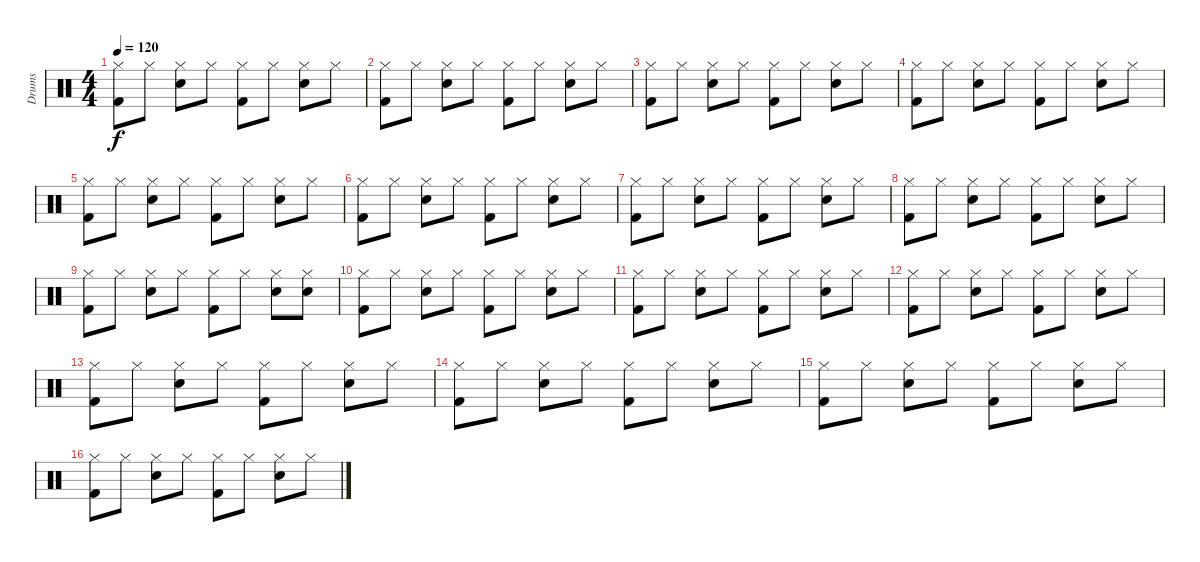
\track ("Drums" "Drums") {instrument percussion}
\staff {score}
\articulation defaults
\ts (4 4)
\tempo 120
\clef neutral
\ks c
("Hi-Hat (closed)" "Kick (hit) 2").8{dy f} "Hi-Hat (closed)".8 ("Hi-Hat (closed)" "Snare (hit) 2").8 "Hi-Hat (closed)".8 ("Hi-Hat (closed)" "Kick (hit) 2").8 "Hi-Hat (closed)".8 ("Hi-Hat (closed)" "Snare (hit) 2").8 "Hi-Hat (closed)".8 |
("Hi-Hat (closed)" "Kick (hit) 2").8 "Hi-Hat (closed)".8 ("Hi-Hat (closed)" "Snare (hit) 2").8 "Hi-Hat (closed)".8 ("Hi-Hat (closed)" "Kick (hit) 2").8 "Hi-Hat (closed)".8 ("Hi-Hat (closed)" "Snare (hit) 2").8 "Hi-Hat (closed)".8 |
("Hi-Hat (closed)" "Kick (hit) 2").8 "Hi-Hat (closed)".8 ("Hi-Hat (closed)" "Snare (hit) 2").8 "Hi-Hat (closed)".8 ("Hi-Hat (closed)" "Kick (hit) 2").8 "Hi-Hat (closed)".8 ("Hi-Hat (closed)" "Snare (hit) 2").8 "Hi-Hat (closed)".8 |
("Hi-Hat (closed)" "Kick (hit) 2").8 "Hi-Hat (closed)".8 ("Hi-Hat (closed)" "Snare (hit) 2").8 "Hi-Hat (closed)".8 ("Hi-Hat (closed)" "Kick (hit) 2").8 "Hi-Hat (closed)".8 ("Hi-Hat (closed)" "Snare (hit) 2").8 "Hi-Hat (closed)".8 |
("Hi-Hat (closed)" "Kick (hit) 2").8 "Hi-Hat (closed)".8 ("Hi-Hat (closed)" "Snare (hit) 2").8 "Hi-Hat (closed)".8 ("Hi-Hat (closed)" "Kick (hit) 2").8 "Hi-Hat (closed)".8 ("Hi-Hat (closed)" "Snare (hit) 2").8 "Hi-Hat (closed)".8 |
("Hi-Hat (closed)" "Kick (hit) 2").8 "Hi-Hat (closed)".8 ("Hi-Hat (closed)" "Snare (hit) 2").8 "Hi-Hat (closed)".8 ("Hi-Hat (closed)" "Kick (hit) 2").8 "Hi-Hat (closed)".8 ("Hi-Hat (closed)" "Snare (hit) 2").8 "Hi-Hat (closed)".8 |
("Hi-Hat (closed)" "Kick (hit) 2").8 "Hi-Hat (closed)".8 ("Hi-Hat (closed)" "Snare (hit) 2").8 "Hi-Hat (closed)".8 ("Hi-Hat (closed)" "Kick (hit) 2").8 "Hi-Hat (closed)".8 ("Hi-Hat (closed)" "Snare (hit) 2").8 "Hi-Hat (closed)".8 |
("Hi-Hat (closed)" "Kick (hit) 2").8 "Hi-Hat (closed)".8 ("Hi-Hat (closed)" "Snare (hit) 2").8 "Hi-Hat (closed)".8 ("Hi-Hat (closed)" "Kick (hit) 2").8 "Hi-Hat (closed)".8 ("Hi-Hat (closed)" "Snare (hit) 2").8 "Hi-Hat (closed)".8 |
("Hi-Hat (closed)" "Kick (hit) 2").8 "Hi-Hat (closed)".8 ("Hi-Hat (closed)" "Snare (hit) 2").8 "Hi-Hat (closed)".8 ("Hi-Hat (closed)" "Kick (hit) 2").8 "Hi-Hat (closed)".8 ("Hi-Hat (closed)" "Snare (hit) 2").8 ("Hi-Hat (closed)" "Snare (hit) 2").8 |
("Hi-Hat (closed)" "Kick (hit) 2").8 "Hi-Hat (closed)".8 ("Hi-Hat (closed)" "Snare (hit) 2").8 "Hi-Hat (closed)".8 ("Hi-Hat (closed)" "Kick (hit) 2").8 "Hi-Hat (closed)".8 ("Hi-Hat (closed)" "Snare (hit) 2").8 "Hi-Hat (closed)".8 |
("Hi-Hat (closed)" "Kick (hit) 2").8 "Hi-Hat (closed)".8 ("Hi-Hat (closed)" "Snare (hit) 2").8 "Hi-Hat (closed)".8 ("Hi-Hat (closed)" "Kick (hit) 2").8 "Hi-Hat (closed)".8 ("Hi-Hat (closed)" "Snare (hit) 2").8 "Hi-Hat (closed)".8 |
("Hi-Hat (closed)" "Kick (hit) 2").8 "Hi-Hat (closed)".8 ("Hi-Hat (closed)" "Snare (hit) 2").8 "Hi-Hat (closed)".8 ("Hi-Hat (closed)" "Kick (hit) 2").8 "Hi-Hat (closed)".8 ("Hi-Hat (closed)" "Snare (hit) 2").8 "Hi-Hat (closed)".8 |
("Hi-Hat (closed)" "Kick (hit) 2").8 "Hi-Hat (closed)".8 ("Hi-Hat (closed)" "Snare (hit) 2").8 "Hi-Hat (closed)".8 ("Hi-Hat (closed)" "Kick (hit) 2").8 "Hi-Hat (closed)".8 ("Hi-Hat (closed)" "Snare (hit) 2").8 "Hi-Hat (closed)".8 |
("Hi-Hat (closed)" "Kick (hit) 2").8 "Hi-Hat (closed)".8 ("Hi-Hat (closed)" "Snare (hit) 2").8 "Hi-Hat (closed)".8 ("Hi-Hat (closed)" "Kick (hit) 2").8 "Hi-Hat (closed)".8 ("Hi-Hat (closed)" "Snare (hit) 2").8 "Hi-Hat (closed)".8 |
("Hi-Hat (closed)" "Kick (hit) 2").8 "Hi-Hat (closed)".8 ("Hi-Hat (closed)" "Snare (hit) 2").8 "Hi-Hat (closed)".8 ("Hi-Hat (closed)" "Kick (hit) 2").8 "Hi-Hat (closed)".8 ("Hi-Hat (closed)" "Snare (hit) 2").8 "Hi-Hat (closed)".8 |
("Hi-Hat (closed)" "Kick (hit) 2").8 "Hi-Hat (closed)".8 ("Hi-Hat (closed)" "Snare (hit) 2").8 "Hi-Hat (closed)".8 ("Hi-Hat (closed)" "Kick (hit) 2").8 "Hi-Hat (closed)".8 ("Hi-Hat (closed)" "Snare (hit) 2").8 "Hi-Hat (closed)".8
